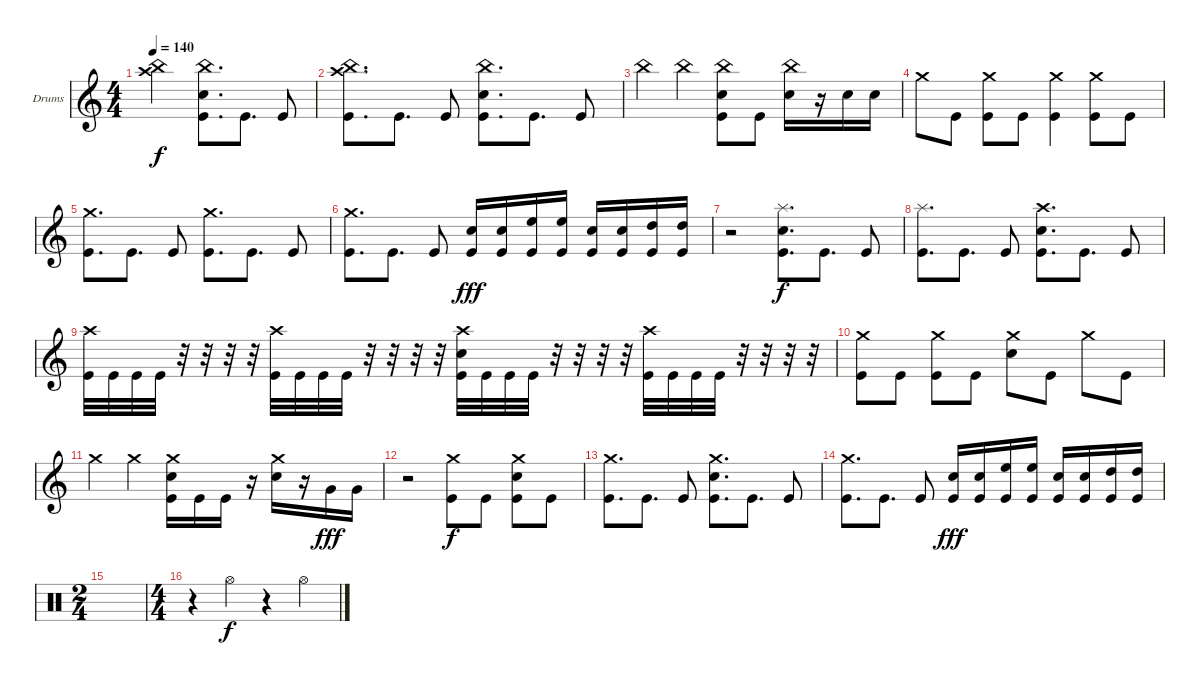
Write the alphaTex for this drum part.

\defaultSystemsLayout 4
\bracketExtendMode groupsimilarinstruments
\firstSystemTrackNameOrientation horizontal
\otherSystemsTrackNameOrientation horizontal
\track ("Drumkit" "Drums") {instrument percussion}
\staff {score}
\articulation defaults
\ts (4 4)
\tempo 140
\clef g2
\scale
0.333333
\ks c
("China (hit)" "Crash high (hit)").2{dy f} ("Kick (hit)" "Snare (hit) 2" "China (hit)").8{d} "Kick (hit)".8{d} "Kick (hit)".8 |
\scale
0.333333 ("Kick (hit)" "China (hit)" "Crash high (hit)").8{d} "Kick (hit)".8{d} "Kick (hit)".8 ("Kick (hit)" "Snare (hit) 2" "China (hit)").8{d} "Kick (hit)".8{d} "Kick (hit)".8 |
\scale
0.333333 "China (hit)".4 "China (hit)".4 ("Kick (hit)" "Snare (hit) 2" "China (hit)").8 "Kick (hit)".8 ("Snare (hit) 2" "China (hit)").16 r.16 "Snare (hit) 2".16 "Snare (hit) 2".16 |
\scale
0.333333 "Crash medium (hit)".8 "Kick (hit)".8 ("Kick (hit)" "Crash medium (hit)").8 "Kick (hit)".8 ("Kick (hit)" "Crash medium (hit)").4 ("Kick (hit)" "Crash medium (hit)").8 "Kick (hit)".8 |
\scale
0.333333 ("Kick (hit)" "Crash medium (hit)").8{d} "Kick (hit)".8{d} "Kick (hit)".8 ("Kick (hit)" "Crash medium (hit)").8{d} "Kick (hit)".8{d} "Kick (hit)".8 |
\scale
0.333333 ("Kick (hit)" "Crash medium (hit)").8{d} "Kick (hit)".8{d} "Kick (hit)".8 ("Snare (hit) 2" "Kick (hit)").16{dy fff} ("Snare (hit) 2" "Kick (hit)").16 ("High Floor Tom (hit)" "Kick (hit)").16 ("High Floor Tom (hit)" "Kick (hit)").16 ("Snare (hit) 2" "Kick (hit)").16 ("Snare (hit) 2" "Kick (hit)").16 ("High Tom (hit)" "Kick (hit)").16 ("High Tom (hit)" "Kick (hit)").16 |
\scale
0.333333 r.2 ("Kick (hit)" "Splash (hit)" "Snare (hit) 2").8{d dy f} "Kick (hit)".8{d} "Kick (hit)".8 |
\scale
0.333333 ("Kick (hit)" "Splash (hit)").8{d} "Kick (hit)".8{d} "Kick (hit)".8 ("Kick (hit)" "Crash high (hit)" "Snare (hit) 2").8{d} "Kick (hit)".8{d} "Kick (hit)".8 |
\scale
0.333333 ("Kick (hit)" "Crash high (hit)").32 "Kick (hit)".32 "Kick (hit)".32 "Kick (hit)".32 r.32 r.32 r.32 r.32 ("Kick (hit)" "Crash high (hit)").32 "Kick (hit)".32 "Kick (hit)".32 "Kick (hit)".32 r.32 r.32 r.32 r.32 ("Kick (hit)" "Crash high (hit)" "Snare (hit) 2").32 "Kick (hit)".32 "Kick (hit)".32 "Kick (hit)".32 r.32 r.32 r.32 r.32 ("Kick (hit)" "Crash high (hit)").32 "Kick (hit)".32 "Kick (hit)".32 "Kick (hit)".32 r.32 r.32 r.32 r.32 |
\scale
0.333333 ("Kick (hit)" "Crash medium (hit)").8 "Kick (hit)".8 ("Kick (hit)" "Crash medium (hit)").8 "Kick (hit)".8 ("Crash medium (hit)" "Snare (hit) 2").8 "Kick (hit)".8 "Crash medium (hit)".8 "Kick (hit)".8 |
\scale
0.333333 "Crash medium (hit)".4 "Crash medium (hit)".4 ("Crash medium (hit)" "Kick (hit)" "Snare (hit) 2").16 "Kick (hit)".16 "Kick (hit)".16 r.16 ("Crash medium (hit)" "Snare (hit) 2").16 r.16 "Very Low Tom (hit)".16{dy fff} "Very Low Tom (hit)".16 |
\scale
0.333333 r.2 ("Kick (hit)" "Crash medium (hit)").8{dy f} "Kick (hit)".8 ("Kick (hit)" "Crash medium (hit)" "Snare (hit) 2").8 "Kick (hit)".8 |
\scale
0.333333 ("Kick (hit)" "Crash medium (hit)").8{d} "Kick (hit)".8{d} "Kick (hit)".8 ("Kick (hit)" "Crash medium (hit)" "Snare (hit) 2").8{d} "Kick (hit)".8{d} "Kick (hit)".8 |
\scale
0.218391 ("Kick (hit)" "Crash medium (hit)").8{d} "Kick (hit)".8{d} "Kick (hit)".8 ("Snare (hit) 2" "Kick (hit)").16{dy fff} ("Snare (hit) 2" "Kick (hit)").16 ("High Floor Tom (hit)" "Kick (hit)").16 ("High Floor Tom (hit)" "Kick (hit)").16 ("Snare (hit) 2" "Kick (hit)").16 ("Snare (hit) 2" "Kick (hit)").16 ("High Tom (hit)" "Kick (hit)").16 ("High Tom (hit)" "Kick (hit)").16 |
\ts (2 4)
\clef neutral
\scale
0.390805 |
\ts (4 4)
\scale
0.390805 r.4 "Hi-Hat (open)".4{dy f} r.4 "Hi-Hat (open)".4
